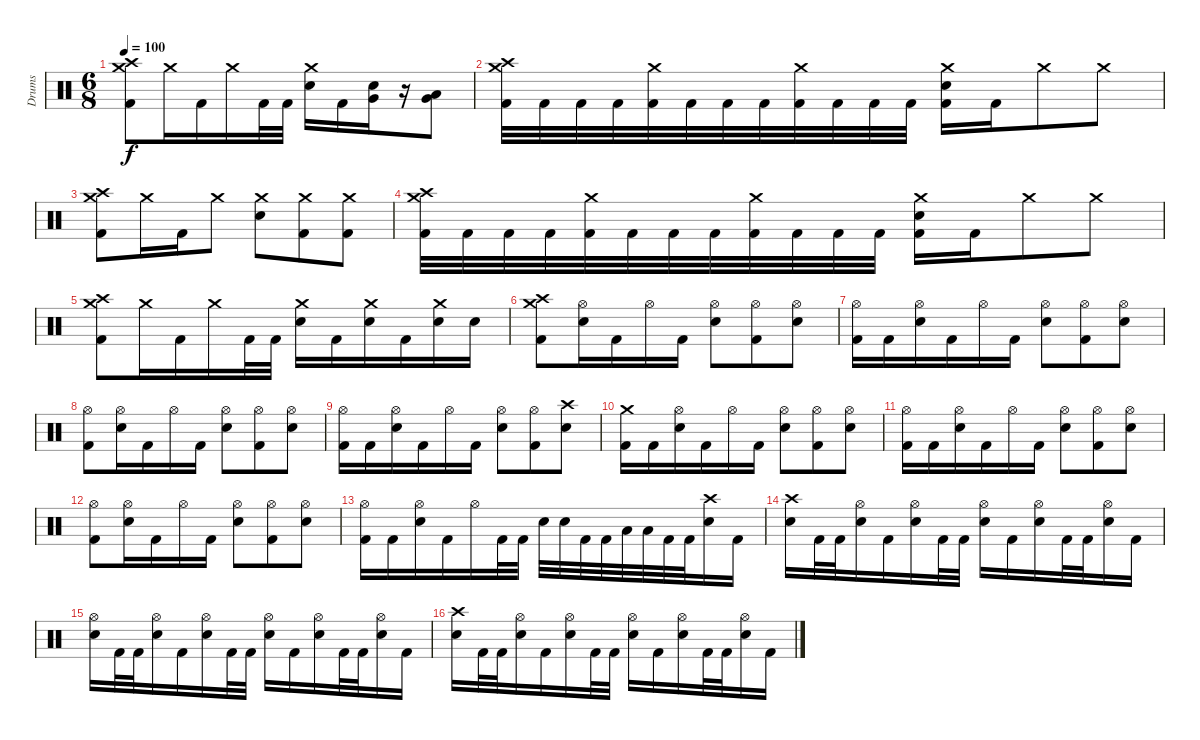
\track ("Drums" "Drums") {instrument percussion}
\staff {score}
\articulation defaults
\ts (6 8)
\tempo 100
\clef neutral
\ks c
("Crash medium (hit)" "Crash high (hit)" "Kick (hit) 2").8{dy f} "Crash medium (hit)".16 "Kick (hit) 2".16 "Crash medium (hit)".16 "Kick (hit) 2".32 "Kick (hit) 2".32 ("Crash medium (hit)" "Electric Snare (hit)").16 "Kick (hit) 2".16 ("Very Low Tom (hit)" "Electric Snare (hit)").16 r.16 ("Low Tom (hit)" "Very Low Tom (hit)").8 |
("Crash medium (hit)" "Crash high (hit)" "Kick (hit) 2").32 "Kick (hit) 2".32 "Kick (hit) 2".32 "Kick (hit) 2".32 ("Crash medium (hit)" "Kick (hit) 2").32 "Kick (hit) 2".32 "Kick (hit) 2".32 "Kick (hit) 2".32 ("Crash medium (hit)" "Kick (hit) 2").32 "Kick (hit) 2".32 "Kick (hit) 2".32 "Kick (hit) 2".32 ("Crash medium (hit)" "Electric Snare (hit)" "Kick (hit) 2").16 "Kick (hit) 2".16 "Crash medium (hit)".8 "Crash medium (hit)".8 |
("Crash medium (hit)" "Crash high (hit)" "Kick (hit) 2").8 "Crash medium (hit)".16 "Kick (hit) 2".16 "Crash medium (hit)".8 ("Crash medium (hit)" "Electric Snare (hit)").8 ("Crash medium (hit)" "Kick (hit) 2").8 ("Crash medium (hit)" "Kick (hit) 2").8 |
("Crash medium (hit)" "Crash high (hit)" "Kick (hit) 2").32 "Kick (hit) 2".32 "Kick (hit) 2".32 "Kick (hit) 2".32 ("Crash medium (hit)" "Kick (hit) 2").32 "Kick (hit) 2".32 "Kick (hit) 2".32 "Kick (hit) 2".32 ("Crash medium (hit)" "Kick (hit) 2").32 "Kick (hit) 2".32 "Kick (hit) 2".32 "Kick (hit) 2".32 ("Crash medium (hit)" "Electric Snare (hit)" "Kick (hit) 2").16 "Kick (hit) 2".16 "Crash medium (hit)".8 "Crash medium (hit)".8 |
("Crash medium (hit)" "Crash high (hit)" "Kick (hit) 2").8 "Crash medium (hit)".16 "Kick (hit) 2".16 "Crash medium (hit)".16 "Kick (hit) 2".32 "Kick (hit) 2".32 ("Crash medium (hit)" "Electric Snare (hit)").16 "Kick (hit) 2".16 ("Crash medium (hit)" "Electric Snare (hit)").16 "Kick (hit) 2".16 ("Crash medium (hit)" "Electric Snare (hit)").16 "Electric Snare (hit)".16 |
("Crash high (hit)" "Crash medium (hit)" "Kick (hit) 2").8 ("Hi-Hat (open)" "Electric Snare (hit)").16 "Kick (hit) 2".16 "Hi-Hat (open)".16 "Kick (hit) 2".16 ("Hi-Hat (open)" "Electric Snare (hit)").8 ("Hi-Hat (open)" "Kick (hit) 2").8 ("Hi-Hat (open)" "Electric Snare (hit)").8 |
("Hi-Hat (open)" "Kick (hit) 2").16 "Kick (hit) 2".16 ("Hi-Hat (open)" "Electric Snare (hit)").16 "Kick (hit) 2".16 "Hi-Hat (open)".16 "Kick (hit) 2".16 ("Hi-Hat (open)" "Electric Snare (hit)").8 ("Hi-Hat (open)" "Kick (hit) 2").8 ("Hi-Hat (open)" "Electric Snare (hit)").8 |
("Hi-Hat (open)" "Kick (hit) 2").8 ("Hi-Hat (open)" "Electric Snare (hit)").16 "Kick (hit) 2".16 "Hi-Hat (open)".16 "Kick (hit) 2".16 ("Hi-Hat (open)" "Electric Snare (hit)").8 ("Hi-Hat (open)" "Kick (hit) 2").8 ("Hi-Hat (open)" "Electric Snare (hit)").8 |
("Hi-Hat (open)" "Kick (hit) 2").16 "Kick (hit) 2".16 ("Hi-Hat (open)" "Electric Snare (hit)").16 "Kick (hit) 2".16 "Hi-Hat (open)".16 "Kick (hit) 2".16 ("Hi-Hat (open)" "Electric Snare (hit)").8 ("Hi-Hat (open)" "Kick (hit) 2").8 ("Crash high (hit)" "Electric Snare (hit)").8 |
("Crash medium (hit)" "Kick (hit) 2").16 "Kick (hit) 2".16 ("Hi-Hat (open)" "Electric Snare (hit)").16 "Kick (hit) 2".16 "Hi-Hat (open)".16 "Kick (hit) 2".16 ("Hi-Hat (open)" "Electric Snare (hit)").8 ("Hi-Hat (open)" "Kick (hit) 2").8 ("Hi-Hat (open)" "Electric Snare (hit)").8 |
("Hi-Hat (open)" "Kick (hit) 2").16 "Kick (hit) 2".16 ("Hi-Hat (open)" "Electric Snare (hit)").16 "Kick (hit) 2".16 "Hi-Hat (open)".16 "Kick (hit) 2".16 ("Hi-Hat (open)" "Electric Snare (hit)").8 ("Hi-Hat (open)" "Kick (hit) 2").8 ("Hi-Hat (open)" "Electric Snare (hit)").8 |
("Hi-Hat (open)" "Kick (hit) 2").8 ("Hi-Hat (open)" "Electric Snare (hit)").16 "Kick (hit) 2".16 "Hi-Hat (open)".16 "Kick (hit) 2".16 ("Hi-Hat (open)" "Electric Snare (hit)").8 ("Hi-Hat (open)" "Kick (hit) 2").8 ("Hi-Hat (open)" "Electric Snare (hit)").8 |
("Hi-Hat (open)" "Kick (hit) 2").16 "Kick (hit) 2".16 ("Hi-Hat (open)" "Electric Snare (hit)").16 "Kick (hit) 2".16 "Hi-Hat (open)".16 "Kick (hit) 2".32 "Kick (hit) 2".32 "Electric Snare (hit)".32 "Electric Snare (hit)".32 "Kick (hit) 2".32 "Kick (hit) 2".32 "Low Tom (hit)".32 "Low Tom (hit)".32 "Kick (hit) 2".32 "Kick (hit) 2".32 ("Crash high (hit)" "Electric Snare (hit)").16 "Kick (hit) 2".16 |
("Crash high (hit)" "Electric Snare (hit)").16 "Kick (hit) 2".32 "Kick (hit) 2".32 ("Hi-Hat (open)" "Electric Snare (hit)").16 "Kick (hit) 2".16 ("Hi-Hat (open)" "Electric Snare (hit)").16 "Kick (hit) 2".32 "Kick (hit) 2".32 ("Hi-Hat (open)" "Electric Snare (hit)").16 "Kick (hit) 2".16 ("Hi-Hat (open)" "Electric Snare (hit)").16 "Kick (hit) 2".32 "Kick (hit) 2".32 ("Hi-Hat (open)" "Electric Snare (hit)").16 "Kick (hit) 2".16 |
("Hi-Hat (open)" "Electric Snare (hit)").16 "Kick (hit) 2".32 "Kick (hit) 2".32 ("Hi-Hat (open)" "Electric Snare (hit)").16 "Kick (hit) 2".16 ("Hi-Hat (open)" "Electric Snare (hit)").16 "Kick (hit) 2".32 "Kick (hit) 2".32 ("Hi-Hat (open)" "Electric Snare (hit)").16 "Kick (hit) 2".16 ("Hi-Hat (open)" "Electric Snare (hit)").16 "Kick (hit) 2".32 "Kick (hit) 2".32 ("Hi-Hat (open)" "Electric Snare (hit)").16 "Kick (hit) 2".16 |
("Crash high (hit)" "Electric Snare (hit)").16 "Kick (hit) 2".32 "Kick (hit) 2".32 ("Hi-Hat (open)" "Electric Snare (hit)").16 "Kick (hit) 2".16 ("Hi-Hat (open)" "Electric Snare (hit)").16 "Kick (hit) 2".32 "Kick (hit) 2".32 ("Hi-Hat (open)" "Electric Snare (hit)").16 "Kick (hit) 2".16 ("Hi-Hat (open)" "Electric Snare (hit)").16 "Kick (hit) 2".32 "Kick (hit) 2".32 ("Hi-Hat (open)" "Electric Snare (hit)").16 "Kick (hit) 2".16
